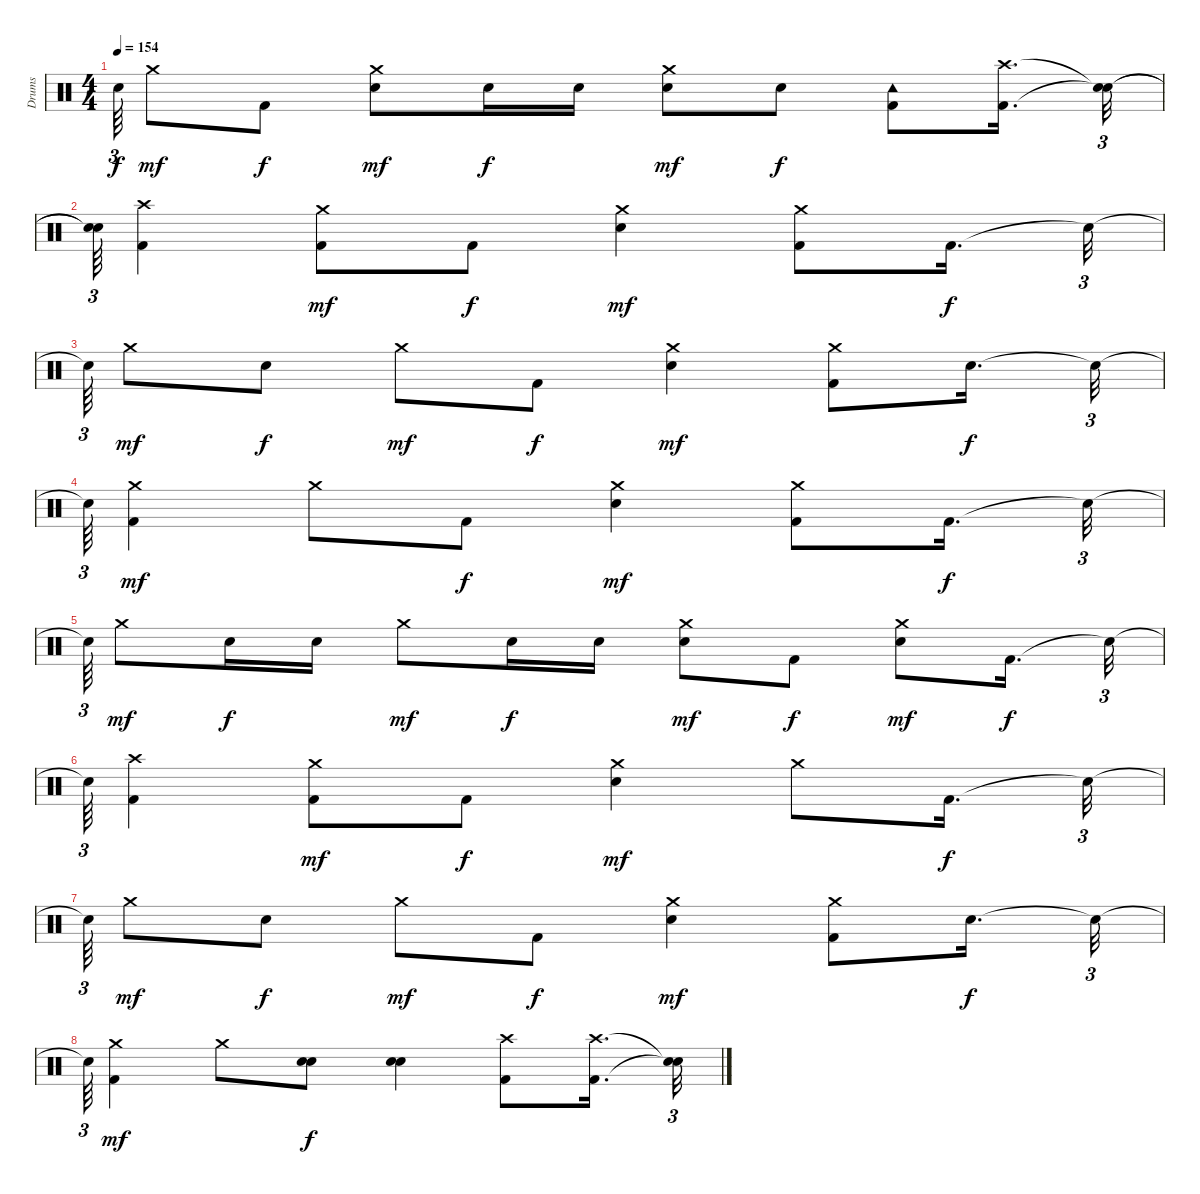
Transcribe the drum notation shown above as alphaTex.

\track ("Drums" "Drums") {instrument percussion}
\staff {score}
\articulation defaults
\ts (4 4)
\tempo 154
\clef neutral
\ks c "Snare (hit)"{t}.64{tu (3 2) dy f} "Crash medium (hit)".8{dy mf} "Kick (hit) 2".8{dy f}
("Electric Snare (hit)" "Crash medium (hit)").8{dy mf} "Electric Snare (hit)".16{dy f} "Electric Snare (hit)".16 ("Electric Snare (hit)" "Crash medium (hit)").8{dy mf} "Electric Snare (hit)".8{dy f} ("Kick (hit) 2" "Tambourine (hit)").8 ("Kick (hit) 2" "Crash high (hit)").16{d} ("Snare (hit)"{t} "Snare (hit)"{t}).32{tu (3 2)} |
("Snare (hit)"{t} "Snare (hit)"{t}).64{tu (3 2)} ("Crash high (hit)" "Kick (hit) 2").4 ("Kick (hit) 2" "Crash medium (hit)").8{dy mf} "Kick (hit) 2".8{dy f} ("Electric Snare (hit)" "Crash medium (hit)").4{dy mf} ("Kick (hit) 2" "Crash medium (hit)").8 "Kick (hit) 2".16{d dy f} "Snare (hit)"{t}.32{tu (3 2)} |
"Snare (hit)"{t}.64{tu (3 2)} "Crash medium (hit)".8{dy mf} "Electric Snare (hit)".8{dy f} "Crash medium (hit)".8{dy mf} "Kick (hit) 2".8{dy f} ("Electric Snare (hit)" "Crash medium (hit)").4{dy mf} ("Kick (hit) 2" "Crash medium (hit)").8 "Electric Snare (hit)".16{d dy f} "Snare (hit)"{t}.32{tu (3 2)} |
"Snare (hit)"{t}.64{tu (3 2)} ("Kick (hit) 2" "Crash medium (hit)").4{dy mf} "Crash medium (hit)".8 "Kick (hit) 2".8{dy f} ("Electric Snare (hit)" "Crash medium (hit)").4{dy mf} ("Kick (hit) 2" "Crash medium (hit)").8 "Kick (hit) 2".16{d dy f} "Snare (hit)"{t}.32{tu (3 2)} |
"Snare (hit)"{t}.64{tu (3 2)} "Crash medium (hit)".8{dy mf} "Electric Snare (hit)".16{dy f} "Electric Snare (hit)".16 "Crash medium (hit)".8{dy mf} "Electric Snare (hit)".16{dy f} "Electric Snare (hit)".16 ("Electric Snare (hit)" "Crash medium (hit)").8{dy mf} "Kick (hit) 2".8{dy f} ("Electric Snare (hit)" "Crash medium (hit)").8{dy mf} "Kick (hit) 2".16{d dy f} "Snare (hit)"{t}.32{tu (3 2)} |
"Snare (hit)"{t}.64{tu (3 2)} ("Crash high (hit)" "Kick (hit) 2").4 ("Kick (hit) 2" "Crash medium (hit)").8{dy mf} "Kick (hit) 2".8{dy f} ("Electric Snare (hit)" "Crash medium (hit)").4{dy mf} "Crash medium (hit)".8 "Kick (hit) 2".16{d dy f} "Snare (hit)"{t}.32{tu (3 2)} |
"Snare (hit)"{t}.64{tu (3 2)} "Crash medium (hit)".8{dy mf} "Electric Snare (hit)".8{dy f} "Crash medium (hit)".8{dy mf} "Kick (hit) 2".8{dy f} ("Electric Snare (hit)" "Crash medium (hit)").4{dy mf} ("Kick (hit) 2" "Crash medium (hit)").8 "Electric Snare (hit)".16{d dy f} "Snare (hit)"{t}.32{tu (3 2)} |
"Snare (hit)"{t}.64{tu (3 2)} ("Kick (hit) 2" "Crash medium (hit)").4{dy mf} "Crash medium (hit)".8 ("Electric Snare (hit)" "Electric Snare (hit)").8{dy f} ("Electric Snare (hit)" "Electric Snare (hit)").4 ("Kick (hit) 2" "Crash high (hit)").8 ("Kick (hit) 2" "Crash high (hit)").16{d} ("Snare (hit)"{t} "Snare (hit)"{t}).32{tu (3 2)}
